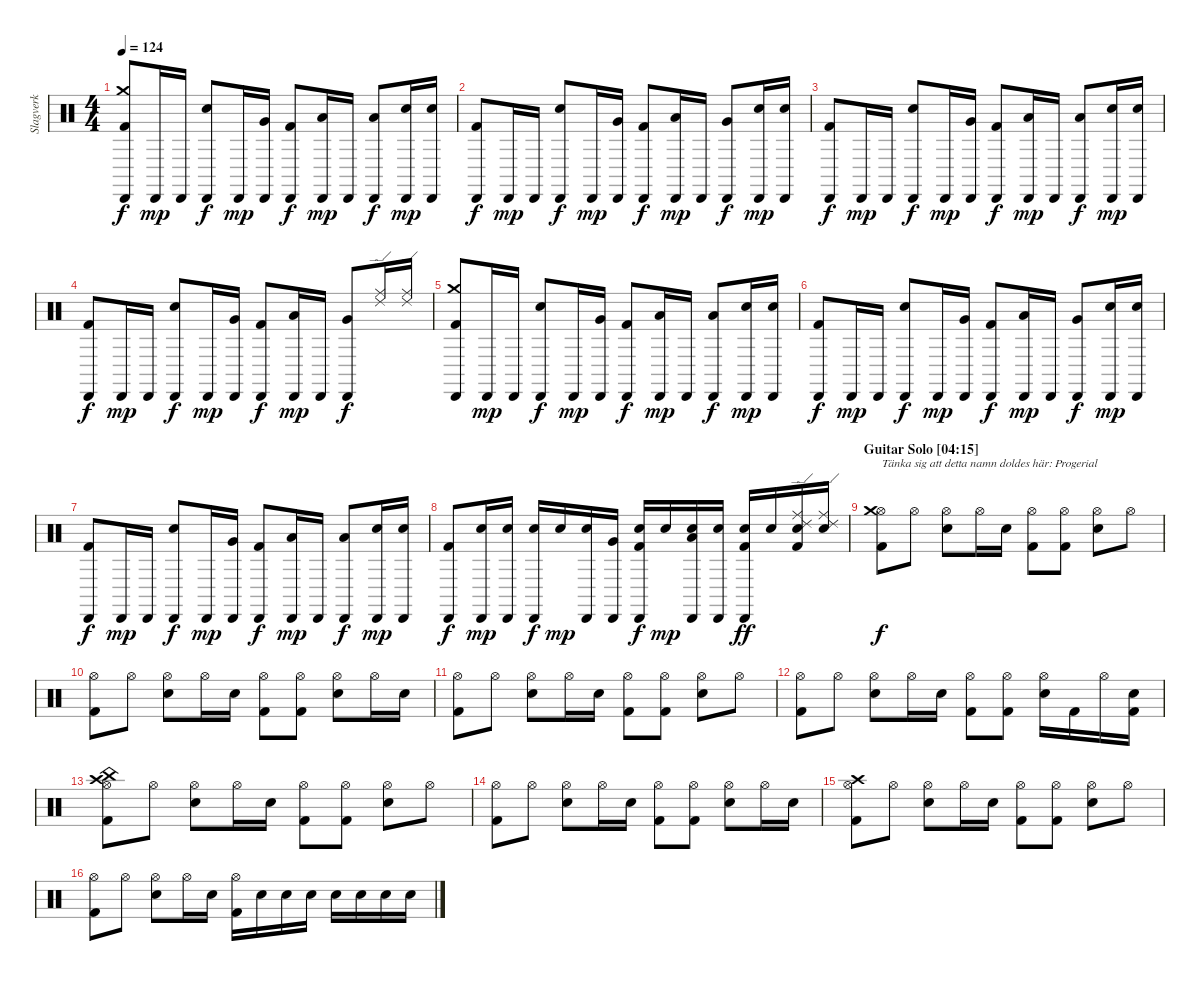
\track ("Slagverk" "Slagverk") {instrument percussion}
\staff {score}
\articulation defaults
\ts (4 4)
\section ("" "")
\tempo 124
\clef neutral
\ks c
("Cabasa (hit)" "Crash medium (hit)" "Kick (hit) 2").8{dy f} "Cabasa (hit)".16{dy mp} "Cabasa (hit)".16 ("Cabasa (hit)" "Electric Snare (hit)").8{dy f} "Cabasa (hit)".16{dy mp} ("Cabasa (hit)" "Very Low Tom (hit)").16 ("Cabasa (hit)" "Kick (hit) 2").8{dy f} ("Cabasa (hit)" "Low Floor Tom (hit)").16{dy mp} "Cabasa (hit)".16 ("Cabasa (hit)" "Low Tom (hit)").8{dy f} ("Cabasa (hit)" "Electric Snare (hit)").16{dy mp} ("Cabasa (hit)" "Electric Snare (hit)").16 |
("Cabasa (hit)" "Kick (hit) 2").8{dy f} "Cabasa (hit)".16{dy mp} "Cabasa (hit)".16 ("Cabasa (hit)" "Electric Snare (hit)").8{dy f} "Cabasa (hit)".16{dy mp} ("Cabasa (hit)" "Very Low Tom (hit)").16 ("Cabasa (hit)" "Kick (hit) 2").8{dy f} ("Cabasa (hit)" "Low Floor Tom (hit)").16{dy mp} "Cabasa (hit)".16 ("Cabasa (hit)" "Very Low Tom (hit)").8{dy f} ("Cabasa (hit)" "Electric Snare (hit)").16{dy mp} ("Cabasa (hit)" "Electric Snare (hit)").16 |
("Cabasa (hit)" "Kick (hit) 2").8{dy f} "Cabasa (hit)".16{dy mp} "Cabasa (hit)".16 ("Cabasa (hit)" "Electric Snare (hit)").8{dy f} "Cabasa (hit)".16{dy mp} ("Cabasa (hit)" "Very Low Tom (hit)").16 ("Cabasa (hit)" "Kick (hit) 2").8{dy f} ("Cabasa (hit)" "Low Floor Tom (hit)").16{dy mp} "Cabasa (hit)".16 ("Cabasa (hit)" "Low Tom (hit)").8{dy f} ("Cabasa (hit)" "Electric Snare (hit)").16{dy mp} ("Cabasa (hit)" "Electric Snare (hit)").16 |
("Cabasa (hit)" "Kick (hit) 2").8{dy f} "Cabasa (hit)".16{dy mp} "Cabasa (hit)".16 ("Cabasa (hit)" "Electric Snare (hit)").8{dy f} "Cabasa (hit)".16{dy mp} ("Cabasa (hit)" "Very Low Tom (hit)").16 ("Cabasa (hit)" "Kick (hit) 2").8{dy f} ("Cabasa (hit)" "Low Floor Tom (hit)").16{dy mp} "Cabasa (hit)".16 ("Cabasa (hit)" "Very Low Tom (hit)").8{dy f} ("Ride (middle)" "Ride (edge) 2").16 ("Ride (middle)" "Ride (edge) 2").16 |
\section ("" "")
("Cabasa (hit)" "Crash medium (hit)" "Kick (hit) 2").8 "Cabasa (hit)".16{dy mp} "Cabasa (hit)".16 ("Cabasa (hit)" "Electric Snare (hit)").8{dy f} "Cabasa (hit)".16{dy mp} ("Cabasa (hit)" "Very Low Tom (hit)").16 ("Cabasa (hit)" "Kick (hit) 2").8{dy f} ("Cabasa (hit)" "Low Floor Tom (hit)").16{dy mp} "Cabasa (hit)".16 ("Cabasa (hit)" "Low Tom (hit)").8{dy f} ("Cabasa (hit)" "Electric Snare (hit)").16{dy mp} ("Cabasa (hit)" "Electric Snare (hit)").16 |
("Cabasa (hit)" "Kick (hit) 2").8{dy f} "Cabasa (hit)".16{dy mp} "Cabasa (hit)".16 ("Cabasa (hit)" "Electric Snare (hit)").8{dy f} "Cabasa (hit)".16{dy mp} ("Cabasa (hit)" "Very Low Tom (hit)").16 ("Cabasa (hit)" "Kick (hit) 2").8{dy f} ("Cabasa (hit)" "Low Floor Tom (hit)").16{dy mp} "Cabasa (hit)".16 ("Cabasa (hit)" "Very Low Tom (hit)").8{dy f} ("Cabasa (hit)" "Electric Snare (hit)").16{dy mp} ("Cabasa (hit)" "Electric Snare (hit)").16 |
("Cabasa (hit)" "Kick (hit) 2").8{dy f} "Cabasa (hit)".16{dy mp} "Cabasa (hit)".16 ("Cabasa (hit)" "Electric Snare (hit)").8{dy f} "Cabasa (hit)".16{dy mp} ("Cabasa (hit)" "Very Low Tom (hit)").16 ("Cabasa (hit)" "Kick (hit) 2").8{dy f} ("Cabasa (hit)" "Low Floor Tom (hit)").16{dy mp} "Cabasa (hit)".16 ("Cabasa (hit)" "Low Tom (hit)").8{dy f} ("Cabasa (hit)" "Electric Snare (hit)").16{dy mp} ("Cabasa (hit)" "Electric Snare (hit)").16 |
("Cabasa (hit)" "Kick (hit) 2").8{dy f} ("Cabasa (hit)" "Electric Snare (hit)").16{dy mp} ("Cabasa (hit)" "Electric Snare (hit)").16 ("Cabasa (hit)" "Electric Snare (hit)").16{dy f} "Electric Snare (hit)".16{dy mp} ("Cabasa (hit)" "Electric Snare (hit)").16 ("Cabasa (hit)" "Very Low Tom (hit)").16 ("Cabasa (hit)" "Electric Snare (hit)" "Kick (hit) 2").16{dy f} "Electric Snare (hit)".16{dy mp} ("Cabasa (hit)" "Electric Snare (hit)" "Low Floor Tom (hit)").16 ("Cabasa (hit)" "Electric Snare (hit)").16 ("Cabasa (hit)" "Electric Snare (hit)" "Kick (hit) 2").16{dy ff} "Electric Snare (hit)".16 ("Ride (middle)" "Ride (edge) 2" "Electric Snare (hit)" "Kick (hit) 2").16 ("Ride (middle)" "Ride (edge) 2" "Electric Snare (hit)").16 |
\section ("" "Guitar Solo [04:15]")
("Hi-Hat (open)" "Crash medium (hit)" "Kick (hit) 2").8{txt "Tänka sig att detta namn doldes här: Progerial" dy f} "Hi-Hat (open)".8 ("Hi-Hat (open)" "Electric Snare (hit)").8 "Hi-Hat (open)".16 "Electric Snare (hit)".16 ("Hi-Hat (open)" "Kick (hit) 2").8 ("Hi-Hat (open)" "Kick (hit) 2").8 ("Hi-Hat (open)" "Electric Snare (hit)").8 "Hi-Hat (open)".8 |
("Hi-Hat (open)" "Kick (hit) 2").8 "Hi-Hat (open)".8 ("Hi-Hat (open)" "Electric Snare (hit)").8 "Hi-Hat (open)".16 "Electric Snare (hit)".16 ("Hi-Hat (open)" "Kick (hit) 2").8 ("Hi-Hat (open)" "Kick (hit) 2").8 ("Hi-Hat (open)" "Electric Snare (hit)").8 "Hi-Hat (open)".16 "Electric Snare (hit)".16 |
("Hi-Hat (open)" "Kick (hit) 2").8 "Hi-Hat (open)".8 ("Hi-Hat (open)" "Electric Snare (hit)").8 "Hi-Hat (open)".16 "Electric Snare (hit)".16 ("Hi-Hat (open)" "Kick (hit) 2").8 ("Hi-Hat (open)" "Kick (hit) 2").8 ("Hi-Hat (open)" "Electric Snare (hit)").8 "Hi-Hat (open)".8 |
("Hi-Hat (open)" "Kick (hit) 2").8 "Hi-Hat (open)".8 ("Hi-Hat (open)" "Electric Snare (hit)").8 "Hi-Hat (open)".16 "Electric Snare (hit)".16 ("Hi-Hat (open)" "Kick (hit) 2").8 ("Hi-Hat (open)" "Kick (hit) 2").8 ("Hi-Hat (open)" "Electric Snare (hit)").16 "Kick (hit) 2".16 "Hi-Hat (open)".16 ("Electric Snare (hit)" "Kick (hit) 2").16 |
("Hi-Hat (open)" "China (hit)" "Crash high (hit)" "Kick (hit) 2").8 "Hi-Hat (open)".8 ("Hi-Hat (open)" "Electric Snare (hit)").8 "Hi-Hat (open)".16 "Electric Snare (hit)".16 ("Hi-Hat (open)" "Kick (hit) 2").8 ("Hi-Hat (open)" "Kick (hit) 2").8 ("Hi-Hat (open)" "Electric Snare (hit)").8 "Hi-Hat (open)".8 |
("Hi-Hat (open)" "Kick (hit) 2").8 "Hi-Hat (open)".8 ("Hi-Hat (open)" "Electric Snare (hit)").8 "Hi-Hat (open)".16 "Electric Snare (hit)".16 ("Hi-Hat (open)" "Kick (hit) 2").8 ("Hi-Hat (open)" "Kick (hit) 2").8 ("Hi-Hat (open)" "Electric Snare (hit)").8 "Hi-Hat (open)".16 "Electric Snare (hit)".16 |
("Hi-Hat (open)" "Crash high (hit)" "Kick (hit) 2").8 "Hi-Hat (open)".8 ("Hi-Hat (open)" "Electric Snare (hit)").8 "Hi-Hat (open)".16 "Electric Snare (hit)".16 ("Hi-Hat (open)" "Kick (hit) 2").8 ("Hi-Hat (open)" "Kick (hit) 2").8 ("Hi-Hat (open)" "Electric Snare (hit)").8 "Hi-Hat (open)".8 |
("Hi-Hat (open)" "Kick (hit) 2").8 "Hi-Hat (open)".8 ("Hi-Hat (open)" "Electric Snare (hit)").8 "Hi-Hat (open)".16 "Electric Snare (hit)".16 ("Hi-Hat (open)" "Kick (hit) 2").16 "Electric Snare (hit)".16 "Electric Snare (hit)".16 "Electric Snare (hit)".16 "Electric Snare (hit)".16 "Electric Snare (hit)".16 "Electric Snare (hit)".16 "Electric Snare (hit)".16
